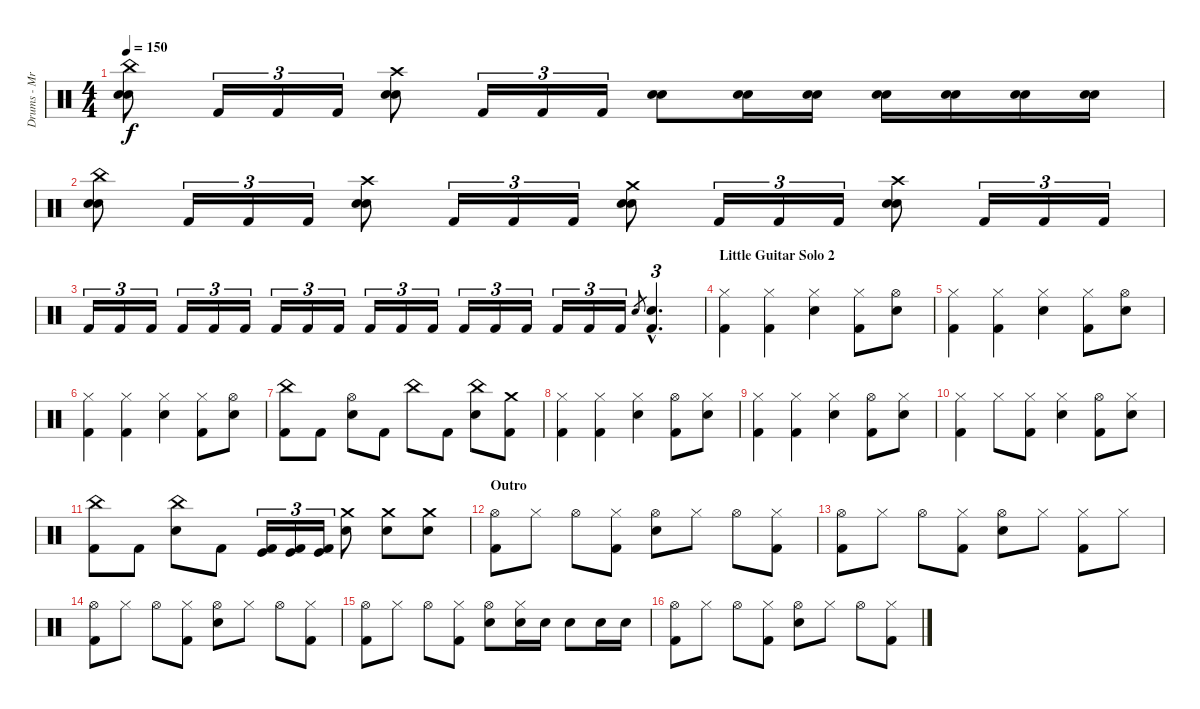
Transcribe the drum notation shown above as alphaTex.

\track ("Drums - Mr. Beller, Thomas" "Drums - Mr") {instrument percussion}
\staff {score}
\articulation defaults
\ts (4 4)
\tempo 150
\clef neutral
\ks c
("China (hit)" "Electric Snare (hit)" "Electric Snare (hit)").8{dy f} "Kick (hit) 2".16{tu (3 2)} "Kick (hit) 2".16{tu (3 2)} "Kick (hit) 2".16{tu (3 2)} ("Crash high (hit)" "Electric Snare (hit)" "Electric Snare (hit)").8 "Kick (hit) 2".16{tu (3 2)} "Kick (hit) 2".16{tu (3 2)} "Kick (hit) 2".16{tu (3 2)} ("Electric Snare (hit)" "Electric Snare (hit)").8 ("Electric Snare (hit)" "Electric Snare (hit)").16 ("Electric Snare (hit)" "Electric Snare (hit)").16 ("Electric Snare (hit)" "Electric Snare (hit)").16 ("Electric Snare (hit)" "Electric Snare (hit)").16 ("Electric Snare (hit)" "Electric Snare (hit)").16 ("Electric Snare (hit)" "Electric Snare (hit)").16 |
("China (hit)" "Electric Snare (hit)" "Electric Snare (hit)").8 "Kick (hit) 2".16{tu (3 2)} "Kick (hit) 2".16{tu (3 2)} "Kick (hit) 2".16{tu (3 2)} ("Crash high (hit)" "Electric Snare (hit)" "Electric Snare (hit)").8 "Kick (hit) 2".16{tu (3 2)} "Kick (hit) 2".16{tu (3 2)} "Kick (hit) 2".16{tu (3 2)} ("Crash medium (hit)" "Electric Snare (hit)" "Electric Snare (hit)").8 "Kick (hit) 2".16{tu (3 2)} "Kick (hit) 2".16{tu (3 2)} "Kick (hit) 2".16{tu (3 2)} ("Crash high (hit)" "Electric Snare (hit)" "Electric Snare (hit)").8 "Kick (hit) 2".16{tu (3 2)} "Kick (hit) 2".16{tu (3 2)} "Kick (hit) 2".16{tu (3 2)} |
"Kick (hit) 2".16{tu (3 2)} "Kick (hit) 2".16{tu (3 2)} "Kick (hit) 2".16{tu (3 2)} "Kick (hit) 2".16{tu (3 2)} "Kick (hit) 2".16{tu (3 2)} "Kick (hit) 2".16{tu (3 2)} "Kick (hit) 2".16{tu (3 2)} "Kick (hit) 2".16{tu (3 2)} "Kick (hit) 2".16{tu (3 2)} "Kick (hit) 2".16{tu (3 2)} "Kick (hit) 2".16{tu (3 2)} "Kick (hit) 2".16{tu (3 2)} "Kick (hit) 2".16{tu (3 2)} "Kick (hit) 2".16{tu (3 2)} "Kick (hit) 2".16{tu (3 2)} "Kick (hit) 2".16{tu (3 2)} "Kick (hit) 2".16{tu (3 2)} "Kick (hit) 2".16{tu (3 2)} "Electric Snare (hit)".8{gr} ("Electric Snare (hit)"{hac} "Kick (hit) 2"{hac}).4{d tu (3 2)} |
\section ("" "Little Guitar Solo 2")
("Hi-Hat (closed)" "Kick (hit) 2").4 ("Hi-Hat (closed)" "Kick (hit) 2").4 ("Hi-Hat (closed)" "Electric Snare (hit)").4 ("Hi-Hat (closed)" "Kick (hit) 2").8 ("Hi-Hat (open)" "Electric Snare (hit)").8 |
("Hi-Hat (closed)" "Kick (hit) 2").4 ("Hi-Hat (closed)" "Kick (hit) 2").4 ("Hi-Hat (closed)" "Electric Snare (hit)").4 ("Hi-Hat (closed)" "Kick (hit) 2").8 ("Hi-Hat (open)" "Electric Snare (hit)").8 |
("Hi-Hat (closed)" "Kick (hit) 2").4 ("Hi-Hat (closed)" "Kick (hit) 2").4 ("Hi-Hat (closed)" "Electric Snare (hit)").4 ("Hi-Hat (closed)" "Kick (hit) 2").8 ("Hi-Hat (open)" "Electric Snare (hit)").8 |
("China (hit)" "Kick (hit) 2").8 "Kick (hit) 2".8 ("Hi-Hat (open)" "Electric Snare (hit)").8 "Kick (hit) 2".8 "China (hit)".8 "Kick (hit) 2".8 ("China (hit)" "Electric Snare (hit)").8 ("Crash medium (hit)" "Kick (hit) 2").8 |
("Hi-Hat (closed)" "Kick (hit) 2").4 ("Hi-Hat (closed)" "Kick (hit) 2").4 ("Hi-Hat (closed)" "Electric Snare (hit)").4 ("Hi-Hat (open)" "Kick (hit) 2").8 ("Hi-Hat (closed)" "Electric Snare (hit)").8 |
("Hi-Hat (closed)" "Kick (hit) 2").4 ("Hi-Hat (closed)" "Kick (hit) 2").4 ("Hi-Hat (closed)" "Electric Snare (hit)").4 ("Hi-Hat (open)" "Kick (hit) 2").8 ("Hi-Hat (closed)" "Electric Snare (hit)").8 |
("Hi-Hat (closed)" "Kick (hit) 2").4 "Hi-Hat (closed)".8 ("Hi-Hat (closed)" "Kick (hit) 2").8 ("Hi-Hat (closed)" "Electric Snare (hit)").4 ("Hi-Hat (open)" "Kick (hit) 2").8 ("Hi-Hat (closed)" "Electric Snare (hit)").8 |
("China (hit)" "Kick (hit) 2").8 "Kick (hit) 2".8 ("China (hit)" "Electric Snare (hit)").8 "Kick (hit) 2".8 ("Kick (hit)" "Kick (hit) 2").16{tu (3 2)} ("Kick (hit)" "Kick (hit) 2").16{tu (3 2)} ("Kick (hit)" "Kick (hit) 2").16{tu (3 2)} ("Crash medium (hit)" "Electric Snare (hit)").8 ("Crash medium (hit)" "Electric Snare (hit)").8 ("Crash medium (hit)" "Electric Snare (hit)").8 |
\section ("" "Outro")
("Hi-Hat (open)" "Kick (hit) 2").8 "Hi-Hat (closed)".8 "Hi-Hat (open)".8 ("Hi-Hat (closed)" "Kick (hit) 2").8 ("Hi-Hat (open)" "Electric Snare (hit)").8 "Hi-Hat (closed)".8 "Hi-Hat (open)".8 ("Hi-Hat (closed)" "Kick (hit) 2").8 |
("Hi-Hat (open)" "Kick (hit) 2").8 "Hi-Hat (closed)".8 "Hi-Hat (open)".8 ("Hi-Hat (closed)" "Kick (hit) 2").8 ("Hi-Hat (open)" "Electric Snare (hit)").8 "Hi-Hat (closed)".8 ("Hi-Hat (closed)" "Kick (hit) 2").8 "Hi-Hat (closed)".8 |
("Hi-Hat (open)" "Kick (hit) 2").8 "Hi-Hat (closed)".8 "Hi-Hat (open)".8 ("Hi-Hat (closed)" "Kick (hit) 2").8 ("Hi-Hat (open)" "Electric Snare (hit)").8 "Hi-Hat (closed)".8 "Hi-Hat (open)".8 ("Hi-Hat (closed)" "Kick (hit) 2").8 |
("Hi-Hat (open)" "Kick (hit) 2").8 "Hi-Hat (closed)".8 "Hi-Hat (open)".8 ("Hi-Hat (closed)" "Kick (hit) 2").8 ("Hi-Hat (open)" "Electric Snare (hit)").8 ("Hi-Hat (closed)" "Electric Snare (hit)").16 "Electric Snare (hit)".16 "Electric Snare (hit)".8 "Electric Snare (hit)".16 "Electric Snare (hit)".16 |
("Hi-Hat (open)" "Kick (hit) 2").8 "Hi-Hat (closed)".8 "Hi-Hat (open)".8 ("Hi-Hat (closed)" "Kick (hit) 2").8 ("Hi-Hat (open)" "Electric Snare (hit)").8 "Hi-Hat (closed)".8 "Hi-Hat (open)".8 ("Hi-Hat (closed)" "Kick (hit) 2").8
